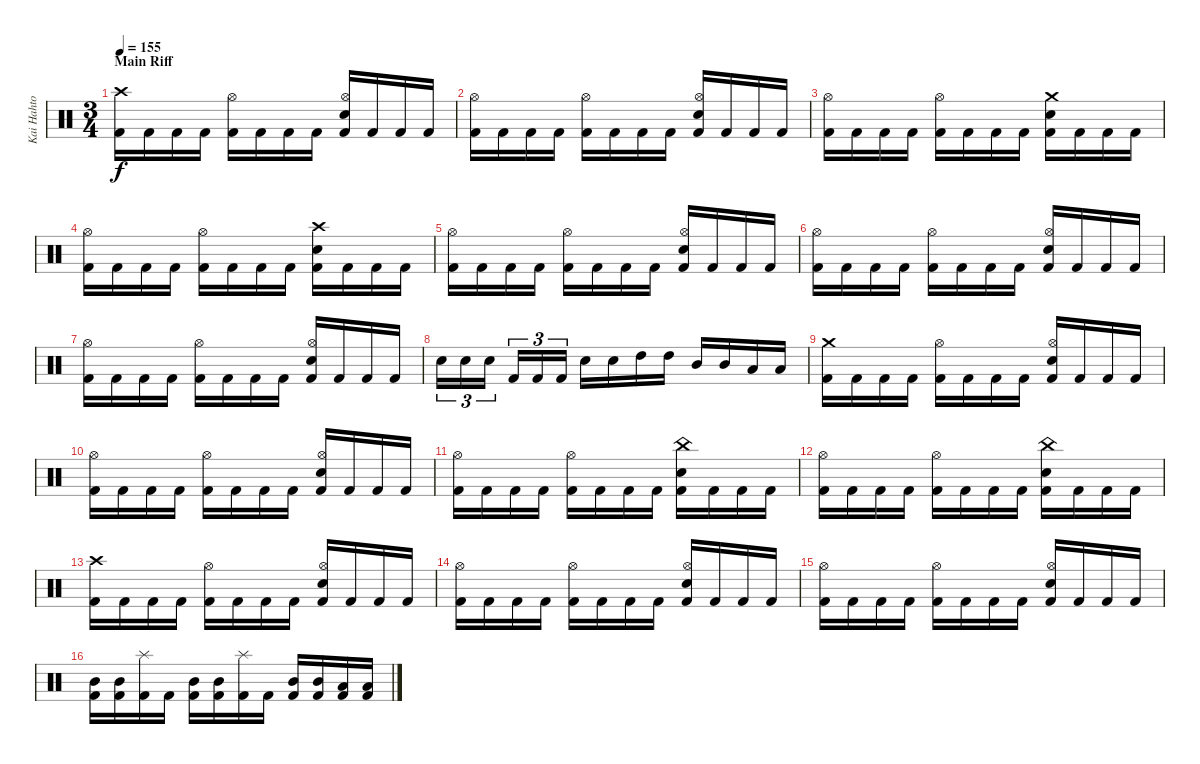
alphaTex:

\track ("Kai Hahto" "Kai Hahto") {instrument percussion}
\staff {score}
\articulation defaults
\ts (3 4)
\section ("" "Main Riff")
\tempo 155
\clef neutral
\ks c
("Crash high (hit)" "Kick (hit) 2").16{dy f} "Kick (hit) 2".16 "Kick (hit) 2".16 "Kick (hit) 2".16 ("Hi-Hat (open)" "Kick (hit) 2").16 "Kick (hit) 2".16 "Kick (hit) 2".16 "Kick (hit) 2".16 ("Hi-Hat (open)" "Electric Snare (hit)" "Kick (hit) 2").16 "Kick (hit) 2".16 "Kick (hit) 2".16 "Kick (hit) 2".16 |
("Hi-Hat (open)" "Kick (hit) 2").16 "Kick (hit) 2".16 "Kick (hit) 2".16 "Kick (hit) 2".16 ("Hi-Hat (open)" "Kick (hit) 2").16 "Kick (hit) 2".16 "Kick (hit) 2".16 "Kick (hit) 2".16 ("Hi-Hat (open)" "Electric Snare (hit)" "Kick (hit) 2").16 "Kick (hit) 2".16 "Kick (hit) 2".16 "Kick (hit) 2".16 |
("Hi-Hat (open)" "Kick (hit) 2").16 "Kick (hit) 2".16 "Kick (hit) 2".16 "Kick (hit) 2".16 ("Hi-Hat (open)" "Kick (hit) 2").16 "Kick (hit) 2".16 "Kick (hit) 2".16 "Kick (hit) 2".16 ("Crash medium (hit)" "Electric Snare (hit)" "Kick (hit) 2").16 "Kick (hit) 2".16 "Kick (hit) 2".16 "Kick (hit) 2".16 |
("Hi-Hat (open)" "Kick (hit) 2").16 "Kick (hit) 2".16 "Kick (hit) 2".16 "Kick (hit) 2".16 ("Hi-Hat (open)" "Kick (hit) 2").16 "Kick (hit) 2".16 "Kick (hit) 2".16 "Kick (hit) 2".16 ("Crash high (hit)" "Electric Snare (hit)" "Kick (hit) 2").16 "Kick (hit) 2".16 "Kick (hit) 2".16 "Kick (hit) 2".16 |
("Hi-Hat (open)" "Kick (hit) 2").16 "Kick (hit) 2".16 "Kick (hit) 2".16 "Kick (hit) 2".16 ("Hi-Hat (open)" "Kick (hit) 2").16 "Kick (hit) 2".16 "Kick (hit) 2".16 "Kick (hit) 2".16 ("Hi-Hat (open)" "Electric Snare (hit)" "Kick (hit) 2").16 "Kick (hit) 2".16 "Kick (hit) 2".16 "Kick (hit) 2".16 |
("Hi-Hat (open)" "Kick (hit) 2").16 "Kick (hit) 2".16 "Kick (hit) 2".16 "Kick (hit) 2".16 ("Hi-Hat (open)" "Kick (hit) 2").16 "Kick (hit) 2".16 "Kick (hit) 2".16 "Kick (hit) 2".16 ("Hi-Hat (open)" "Electric Snare (hit)" "Kick (hit) 2").16 "Kick (hit) 2".16 "Kick (hit) 2".16 "Kick (hit) 2".16 |
("Hi-Hat (open)" "Kick (hit) 2").16 "Kick (hit) 2".16 "Kick (hit) 2".16 "Kick (hit) 2".16 ("Hi-Hat (open)" "Kick (hit) 2").16 "Kick (hit) 2".16 "Kick (hit) 2".16 "Kick (hit) 2".16 ("Hi-Hat (open)" "Electric Snare (hit)" "Kick (hit) 2").16 "Kick (hit) 2".16 "Kick (hit) 2".16 "Kick (hit) 2".16 |
"Electric Snare (hit)".16{tu (3 2)} "Electric Snare (hit)".16{tu (3 2)} "Electric Snare (hit)".16{tu (3 2)} "Kick (hit) 2".16{tu (3 2)} "Kick (hit) 2".16{tu (3 2)} "Kick (hit) 2".16{tu (3 2)} "Electric Snare (hit)".16 "Electric Snare (hit)".16 "High Tom (hit)".16 "High Tom (hit)".16 "Mid Tom (hit)".16 "Mid Tom (hit)".16 "Low Tom (hit)".16 "Low Tom (hit)".16 |
("Crash medium (hit)" "Kick (hit) 2").16 "Kick (hit) 2".16 "Kick (hit) 2".16 "Kick (hit) 2".16 ("Hi-Hat (open)" "Kick (hit) 2").16 "Kick (hit) 2".16 "Kick (hit) 2".16 "Kick (hit) 2".16 ("Hi-Hat (open)" "Electric Snare (hit)" "Kick (hit) 2").16 "Kick (hit) 2".16 "Kick (hit) 2".16 "Kick (hit) 2".16 |
("Hi-Hat (open)" "Kick (hit) 2").16 "Kick (hit) 2".16 "Kick (hit) 2".16 "Kick (hit) 2".16 ("Hi-Hat (open)" "Kick (hit) 2").16 "Kick (hit) 2".16 "Kick (hit) 2".16 "Kick (hit) 2".16 ("Hi-Hat (open)" "Electric Snare (hit)" "Kick (hit) 2").16 "Kick (hit) 2".16 "Kick (hit) 2".16 "Kick (hit) 2".16 |
("Hi-Hat (open)" "Kick (hit) 2").16 "Kick (hit) 2".16 "Kick (hit) 2".16 "Kick (hit) 2".16 ("Hi-Hat (open)" "Kick (hit) 2").16 "Kick (hit) 2".16 "Kick (hit) 2".16 "Kick (hit) 2".16 ("China (hit)" "Electric Snare (hit)" "Kick (hit) 2").16 "Kick (hit) 2".16 "Kick (hit) 2".16 "Kick (hit) 2".16 |
("Hi-Hat (open)" "Kick (hit) 2").16 "Kick (hit) 2".16 "Kick (hit) 2".16 "Kick (hit) 2".16 ("Hi-Hat (open)" "Kick (hit) 2").16 "Kick (hit) 2".16 "Kick (hit) 2".16 "Kick (hit) 2".16 ("China (hit)" "Electric Snare (hit)" "Kick (hit) 2").16 "Kick (hit) 2".16 "Kick (hit) 2".16 "Kick (hit) 2".16 |
("Crash high (hit)" "Kick (hit) 2").16 "Kick (hit) 2".16 "Kick (hit) 2".16 "Kick (hit) 2".16 ("Hi-Hat (open)" "Kick (hit) 2").16 "Kick (hit) 2".16 "Kick (hit) 2".16 "Kick (hit) 2".16 ("Hi-Hat (open)" "Electric Snare (hit)" "Kick (hit) 2").16 "Kick (hit) 2".16 "Kick (hit) 2".16 "Kick (hit) 2".16 |
("Hi-Hat (open)" "Kick (hit) 2").16 "Kick (hit) 2".16 "Kick (hit) 2".16 "Kick (hit) 2".16 ("Hi-Hat (open)" "Kick (hit) 2").16 "Kick (hit) 2".16 "Kick (hit) 2".16 "Kick (hit) 2".16 ("Hi-Hat (open)" "Electric Snare (hit)" "Kick (hit) 2").16 "Kick (hit) 2".16 "Kick (hit) 2".16 "Kick (hit) 2".16 |
("Hi-Hat (open)" "Kick (hit) 2").16 "Kick (hit) 2".16 "Kick (hit) 2".16 "Kick (hit) 2".16 ("Hi-Hat (open)" "Kick (hit) 2").16 "Kick (hit) 2".16 "Kick (hit) 2".16 "Kick (hit) 2".16 ("Hi-Hat (open)" "Electric Snare (hit)" "Kick (hit) 2").16 "Kick (hit) 2".16 "Kick (hit) 2".16 "Kick (hit) 2".16 |
("Mid Tom (hit)" "Kick (hit) 2").16 ("Mid Tom (hit)" "Kick (hit) 2").16 ("Splash (hit)" "Kick (hit) 2").16 "Kick (hit) 2".16 ("Mid Tom (hit)" "Kick (hit) 2").16 ("Mid Tom (hit)" "Kick (hit) 2").16 ("Splash (hit)" "Kick (hit) 2").16 "Kick (hit) 2".16 ("Mid Tom (hit)" "Kick (hit) 2").16 ("Mid Tom (hit)" "Kick (hit) 2").16 ("Low Tom (hit)" "Kick (hit) 2").16 ("Low Tom (hit)" "Kick (hit) 2").16
